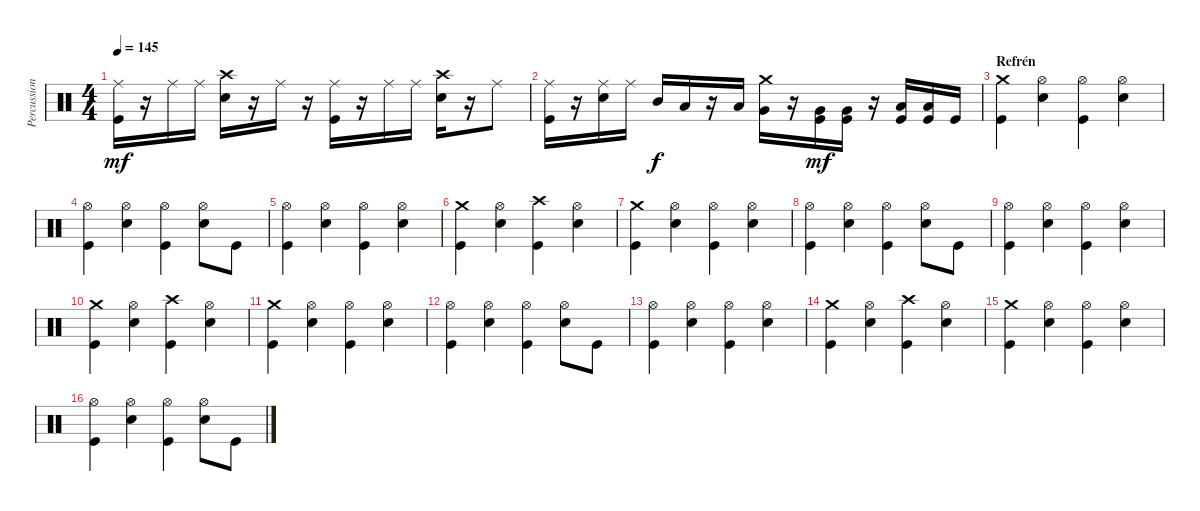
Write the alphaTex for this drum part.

\track ("Percussion" "Percussion") {instrument percussion}
\staff {score}
\articulation defaults
\ts (4 4)
\tempo 145
\clef neutral
\ks c
("Ride (middle)" "Kick (hit)").16{dy mf} r.16 "Ride (middle)".16 "Ride (middle)".16 ("Crash high (hit)" "Electric Snare (hit)").16 r.16 "Ride (middle)".16 r.16 ("Ride (middle)" "Kick (hit)").16 r.16 "Ride (middle)".16 "Ride (middle)".16 ("Crash high (hit)" "Electric Snare (hit)").16 r.16 "Ride (middle)".8 |
("Ride (middle)" "Kick (hit)").16 r.16 ("Ride (middle)" "Electric Snare (hit)").16 "Ride (middle)".16 "Mid Tom (hit)".16{dy f} "Low Tom (hit)".16 r.16 "Low Tom (hit)".16 ("Crash medium (hit)" "Very Low Tom (hit)").16 r.16 ("Kick (hit)" "Very Low Tom (hit)").16{dy mf} ("Kick (hit)" "Very Low Tom (hit)").16 r.16 ("Kick (hit)" "Low Floor Tom (hit)").16 ("Kick (hit)" "Low Floor Tom (hit)").16 "Kick (hit)".16 |
\section ("" "Refrén")
("Crash medium (hit)" "Kick (hit)").4 ("Hi-Hat (open)" "Electric Snare (hit)").4 ("Hi-Hat (open)" "Kick (hit)").4 ("Hi-Hat (open)" "Electric Snare (hit)").4 |
("Hi-Hat (open)" "Kick (hit)").4 ("Hi-Hat (open)" "Electric Snare (hit)").4 ("Hi-Hat (open)" "Kick (hit)").4 ("Hi-Hat (open)" "Electric Snare (hit)").8 "Kick (hit)".8 |
("Hi-Hat (open)" "Kick (hit)").4 ("Hi-Hat (open)" "Electric Snare (hit)").4 ("Hi-Hat (open)" "Kick (hit)").4 ("Hi-Hat (open)" "Electric Snare (hit)").4 |
("Crash medium (hit)" "Kick (hit)").4 ("Hi-Hat (open)" "Electric Snare (hit)").4 ("Crash high (hit)" "Kick (hit)").4 ("Hi-Hat (open)" "Electric Snare (hit)").4 |
("Crash medium (hit)" "Kick (hit)").4 ("Hi-Hat (open)" "Electric Snare (hit)").4 ("Hi-Hat (open)" "Kick (hit)").4 ("Hi-Hat (open)" "Electric Snare (hit)").4 |
("Hi-Hat (open)" "Kick (hit)").4 ("Hi-Hat (open)" "Electric Snare (hit)").4 ("Hi-Hat (open)" "Kick (hit)").4 ("Hi-Hat (open)" "Electric Snare (hit)").8 "Kick (hit)".8 |
("Hi-Hat (open)" "Kick (hit)").4 ("Hi-Hat (open)" "Electric Snare (hit)").4 ("Hi-Hat (open)" "Kick (hit)").4 ("Hi-Hat (open)" "Electric Snare (hit)").4 |
("Crash medium (hit)" "Kick (hit)").4 ("Hi-Hat (open)" "Electric Snare (hit)").4 ("Crash high (hit)" "Kick (hit)").4 ("Hi-Hat (open)" "Electric Snare (hit)").4 |
("Crash medium (hit)" "Kick (hit)").4 ("Hi-Hat (open)" "Electric Snare (hit)").4 ("Hi-Hat (open)" "Kick (hit)").4 ("Hi-Hat (open)" "Electric Snare (hit)").4 |
("Hi-Hat (open)" "Kick (hit)").4 ("Hi-Hat (open)" "Electric Snare (hit)").4 ("Hi-Hat (open)" "Kick (hit)").4 ("Hi-Hat (open)" "Electric Snare (hit)").8 "Kick (hit)".8 |
("Hi-Hat (open)" "Kick (hit)").4 ("Hi-Hat (open)" "Electric Snare (hit)").4 ("Hi-Hat (open)" "Kick (hit)").4 ("Hi-Hat (open)" "Electric Snare (hit)").4 |
("Crash medium (hit)" "Kick (hit)").4 ("Hi-Hat (open)" "Electric Snare (hit)").4 ("Crash high (hit)" "Kick (hit)").4 ("Hi-Hat (open)" "Electric Snare (hit)").4 |
("Crash medium (hit)" "Kick (hit)").4 ("Hi-Hat (open)" "Electric Snare (hit)").4 ("Hi-Hat (open)" "Kick (hit)").4 ("Hi-Hat (open)" "Electric Snare (hit)").4 |
("Hi-Hat (open)" "Kick (hit)").4 ("Hi-Hat (open)" "Electric Snare (hit)").4 ("Hi-Hat (open)" "Kick (hit)").4 ("Hi-Hat (open)" "Electric Snare (hit)").8 "Kick (hit)".8
